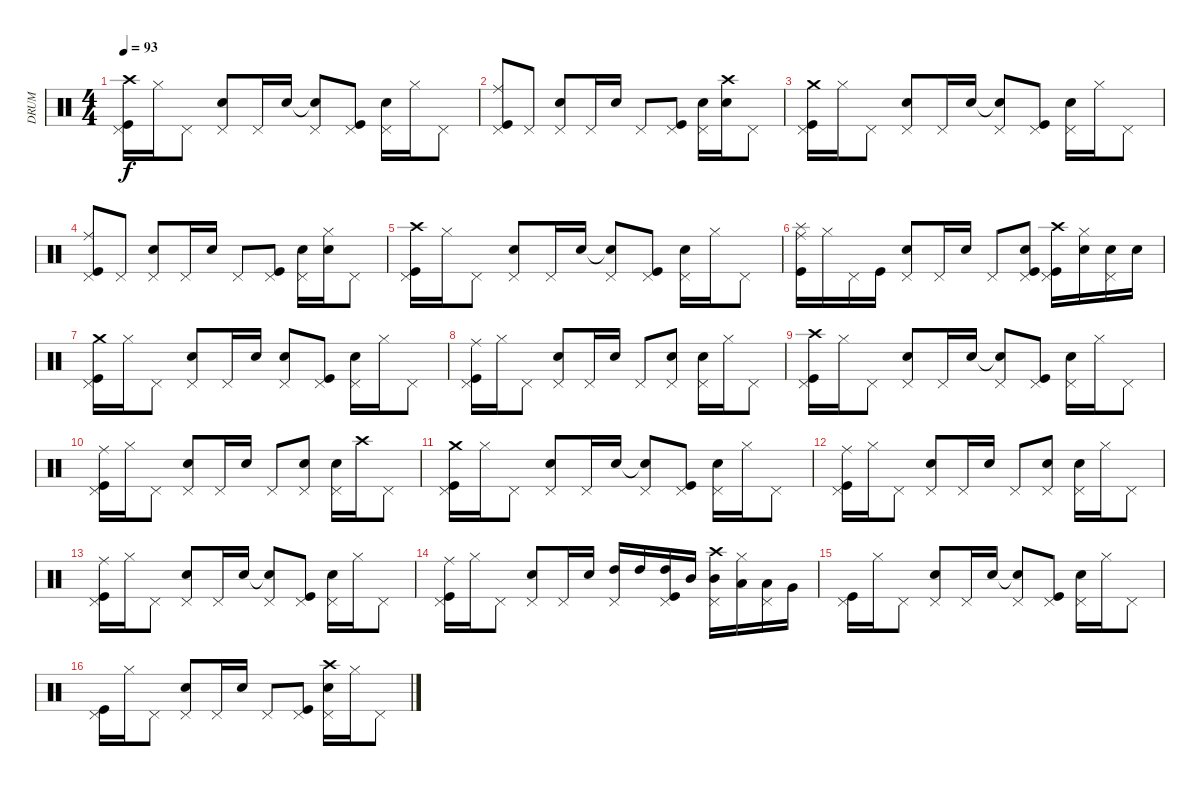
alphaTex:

\track ("DRUM" "DRUM") {instrument percussion}
\staff {score}
\articulation defaults
\ts (4 4)
\tempo 93
\clef neutral
\ks c
("Crash high (hit)" "Kick (hit)" "Pedal Hi-Hat (hit)").16{dy f} "Hi-Hat (closed)".16 "Pedal Hi-Hat (hit)".8 ("Snare (hit) 2" "Pedal Hi-Hat (hit)").8 "Pedal Hi-Hat (hit)".16 "Snare (hit) 2".16 ("Snare (hit) 2"{t} "Pedal Hi-Hat (hit)").8 ("Kick (hit)" "Pedal Hi-Hat (hit)").8 ("Snare (hit) 2" "Pedal Hi-Hat (hit)").16 "Hi-Hat (closed)".16 "Pedal Hi-Hat (hit)".8 |
("Ride (middle)" "Kick (hit)" "Pedal Hi-Hat (hit)").8 "Pedal Hi-Hat (hit)".8 ("Snare (hit) 2" "Pedal Hi-Hat (hit)").8 "Pedal Hi-Hat (hit)".16 "Snare (hit) 2".16 "Pedal Hi-Hat (hit)".8 ("Kick (hit)" "Pedal Hi-Hat (hit)").8 ("Snare (hit) 2" "Pedal Hi-Hat (hit)").16 ("Crash high (hit)" "Snare (hit) 2").16 "Pedal Hi-Hat (hit)".8 |
("Crash medium (hit)" "Kick (hit)" "Pedal Hi-Hat (hit)").16 "Hi-Hat (closed)".16 "Pedal Hi-Hat (hit)".8 ("Snare (hit) 2" "Pedal Hi-Hat (hit)").8 "Pedal Hi-Hat (hit)".16 "Snare (hit) 2".16 ("Snare (hit) 2"{t} "Pedal Hi-Hat (hit)").8 ("Kick (hit)" "Pedal Hi-Hat (hit)").8 ("Snare (hit) 2" "Pedal Hi-Hat (hit)").16 "Hi-Hat (closed)".16 "Pedal Hi-Hat (hit)".8 |
("Ride (middle)" "Kick (hit)" "Pedal Hi-Hat (hit)").8 "Pedal Hi-Hat (hit)".8 ("Snare (hit) 2" "Pedal Hi-Hat (hit)").8 "Pedal Hi-Hat (hit)".16 "Snare (hit) 2".16 "Pedal Hi-Hat (hit)".8 ("Kick (hit)" "Pedal Hi-Hat (hit)").8 ("Snare (hit) 2" "Pedal Hi-Hat (hit)").16 ("Hi-Hat (closed)" "Snare (hit) 2").16 "Pedal Hi-Hat (hit)".8 |
("Crash high (hit)" "Kick (hit)" "Pedal Hi-Hat (hit)").16 "Hi-Hat (closed)".16 "Pedal Hi-Hat (hit)".8 ("Snare (hit) 2" "Pedal Hi-Hat (hit)").8 "Pedal Hi-Hat (hit)".16 "Snare (hit) 2".16 ("Snare (hit) 2"{t} "Pedal Hi-Hat (hit)").8 ("Kick (hit)" "Pedal Hi-Hat (hit)").8 ("Snare (hit) 2" "Pedal Hi-Hat (hit)").16 "Hi-Hat (closed)".16 "Pedal Hi-Hat (hit)".8 |
("Ride (middle)" "Kick (hit)" "Splash (hit)").16 "Hi-Hat (closed)".16 "Pedal Hi-Hat (hit)".16 "Kick (hit)".16 ("Snare (hit) 2" "Pedal Hi-Hat (hit)").8 "Pedal Hi-Hat (hit)".16 "Snare (hit) 2".16 "Pedal Hi-Hat (hit)".8 ("Snare (hit) 2" "Kick (hit)" "Pedal Hi-Hat (hit)").8 ("Crash high (hit)" "Kick (hit)" "Pedal Hi-Hat (hit)").16 ("Hi-Hat (closed)" "Snare (hit) 2").16 ("Snare (hit) 2" "Pedal Hi-Hat (hit)").16 "Snare (hit) 2".16 |
("Crash medium (hit)" "Kick (hit)" "Pedal Hi-Hat (hit)").16 "Hi-Hat (closed)".16 "Pedal Hi-Hat (hit)".8 ("Snare (hit) 2" "Pedal Hi-Hat (hit)").8 "Pedal Hi-Hat (hit)".16 "Snare (hit) 2".16 ("Snare (hit) 2" "Pedal Hi-Hat (hit)").8 ("Kick (hit)" "Pedal Hi-Hat (hit)").8 ("Snare (hit) 2" "Pedal Hi-Hat (hit)").16 "Hi-Hat (closed)".16 "Pedal Hi-Hat (hit)".8 |
("Ride (middle)" "Kick (hit)" "Pedal Hi-Hat (hit)").16 "Hi-Hat (closed)".16 "Pedal Hi-Hat (hit)".8 ("Snare (hit) 2" "Pedal Hi-Hat (hit)").8 "Pedal Hi-Hat (hit)".16 "Snare (hit) 2".16 "Pedal Hi-Hat (hit)".8 ("Snare (hit) 2" "Pedal Hi-Hat (hit)").8 ("Snare (hit) 2" "Pedal Hi-Hat (hit)").16 "Hi-Hat (closed)".16 "Pedal Hi-Hat (hit)".8 |
("Crash high (hit)" "Kick (hit)" "Pedal Hi-Hat (hit)").16 "Hi-Hat (closed)".16 "Pedal Hi-Hat (hit)".8 ("Snare (hit) 2" "Pedal Hi-Hat (hit)").8 "Pedal Hi-Hat (hit)".16 "Snare (hit) 2".16 ("Snare (hit) 2"{t} "Pedal Hi-Hat (hit)").8 ("Kick (hit)" "Pedal Hi-Hat (hit)").8 ("Snare (hit) 2" "Pedal Hi-Hat (hit)").16 "Hi-Hat (closed)".16 "Pedal Hi-Hat (hit)".8 |
("Ride (middle)" "Kick (hit)" "Pedal Hi-Hat (hit)").16 "Hi-Hat (closed)".16 "Pedal Hi-Hat (hit)".8 ("Snare (hit) 2" "Pedal Hi-Hat (hit)").8 "Pedal Hi-Hat (hit)".16 "Snare (hit) 2".16 "Pedal Hi-Hat (hit)".8 ("Snare (hit) 2" "Pedal Hi-Hat (hit)").8 ("Snare (hit) 2" "Pedal Hi-Hat (hit)").16 "Crash high (hit)".16 "Pedal Hi-Hat (hit)".8 |
("Crash medium (hit)" "Kick (hit)" "Pedal Hi-Hat (hit)").16 "Hi-Hat (closed)".16 "Pedal Hi-Hat (hit)".8 ("Snare (hit) 2" "Pedal Hi-Hat (hit)").8 "Pedal Hi-Hat (hit)".16 "Snare (hit) 2".16 ("Snare (hit) 2"{t} "Pedal Hi-Hat (hit)").8 ("Kick (hit)" "Pedal Hi-Hat (hit)").8 ("Snare (hit) 2" "Pedal Hi-Hat (hit)").16 "Hi-Hat (closed)".16 "Pedal Hi-Hat (hit)".8 |
("Ride (middle)" "Kick (hit)" "Pedal Hi-Hat (hit)").16 "Hi-Hat (closed)".16 "Pedal Hi-Hat (hit)".8 ("Snare (hit) 2" "Pedal Hi-Hat (hit)").8 "Pedal Hi-Hat (hit)".16 "Snare (hit) 2".16 "Pedal Hi-Hat (hit)".8 ("Snare (hit) 2" "Pedal Hi-Hat (hit)").8 ("Snare (hit) 2" "Pedal Hi-Hat (hit)").16 "Hi-Hat (closed)".16 "Pedal Hi-Hat (hit)".8 |
("Ride (middle)" "Kick (hit)" "Pedal Hi-Hat (hit)").16 "Hi-Hat (closed)".16 "Pedal Hi-Hat (hit)".8 ("Snare (hit) 2" "Pedal Hi-Hat (hit)").8 "Pedal Hi-Hat (hit)".16 "Snare (hit) 2".16 ("Snare (hit) 2"{t} "Pedal Hi-Hat (hit)").8 ("Kick (hit)" "Pedal Hi-Hat (hit)").8 ("Snare (hit) 2" "Pedal Hi-Hat (hit)").16 "Hi-Hat (closed)".16 "Pedal Hi-Hat (hit)".8 |
("Ride (middle)" "Kick (hit)" "Pedal Hi-Hat (hit)").16 "Hi-Hat (closed)".16 "Pedal Hi-Hat (hit)".8 ("Snare (hit) 2" "Pedal Hi-Hat (hit)").8 "Pedal Hi-Hat (hit)".16 "Snare (hit) 2".16 ("High Tom (hit)" "Pedal Hi-Hat (hit)").16 "High Tom (hit)".16 ("High Tom (hit)" "Kick (hit)" "Pedal Hi-Hat (hit)").16 "Mid Tom (hit)".16 ("Crash high (hit)" "Mid Tom (hit)" "Pedal Hi-Hat (hit)").16 ("Low Tom (hit)" "Hi-Hat (closed)").16 ("Low Tom (hit)" "Pedal Hi-Hat (hit)").16 "Very Low Tom (hit)".16 |
("Kick (hit)" "Pedal Hi-Hat (hit)").16 "Hi-Hat (closed)".16 "Pedal Hi-Hat (hit)".8 ("Snare (hit) 2" "Pedal Hi-Hat (hit)").8 "Pedal Hi-Hat (hit)".16 "Snare (hit) 2".16 ("Snare (hit) 2"{t} "Pedal Hi-Hat (hit)").8 ("Kick (hit)" "Pedal Hi-Hat (hit)").8 ("Snare (hit) 2" "Pedal Hi-Hat (hit)").16 "Hi-Hat (closed)".16 "Pedal Hi-Hat (hit)".8 |
("Kick (hit)" "Pedal Hi-Hat (hit)").16 "Hi-Hat (closed)".16 "Pedal Hi-Hat (hit)".8 ("Snare (hit) 2" "Pedal Hi-Hat (hit)").8 "Pedal Hi-Hat (hit)".16 "Snare (hit) 2".16 "Pedal Hi-Hat (hit)".8 ("Kick (hit)" "Pedal Hi-Hat (hit)").8 ("Crash high (hit)" "Snare (hit) 2" "Pedal Hi-Hat (hit)").16 "Hi-Hat (closed)".16 "Pedal Hi-Hat (hit)".8
